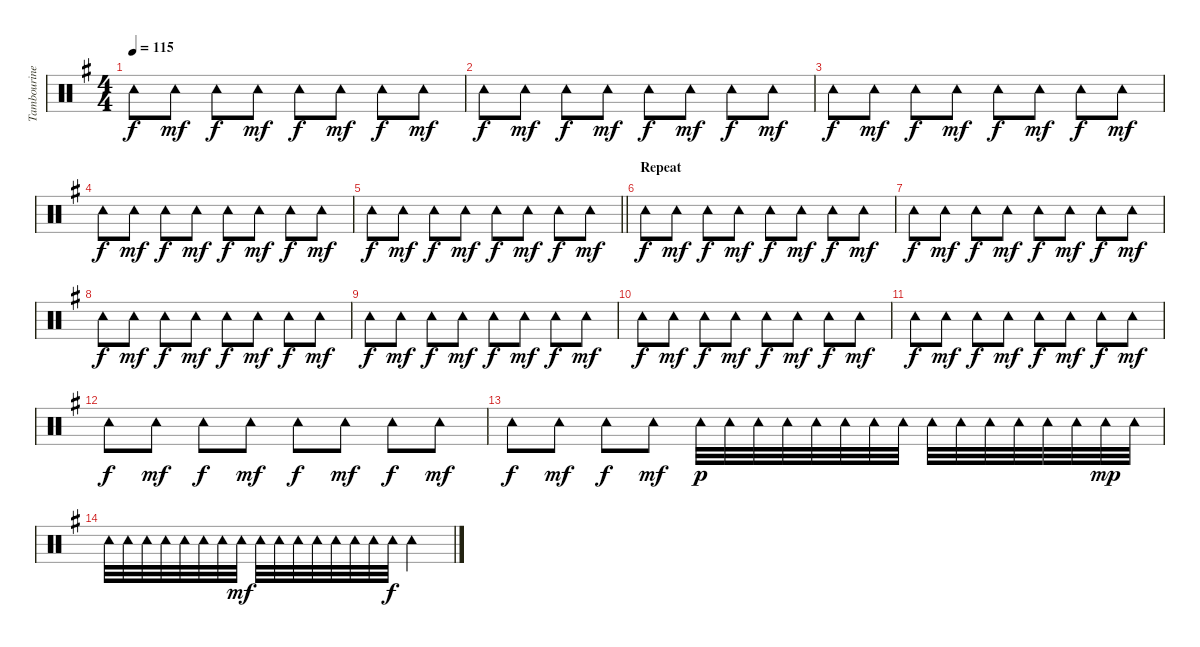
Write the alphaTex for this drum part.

\track ("Tambourine" "Tambourine") {instrument percussion}
\staff {score}
\articulation defaults
\ts (4 4)
\tempo 115
\clef neutral
\ks g "Tambourine (hit)".8{dy f} "Tambourine (hit)".8{dy mf} "Tambourine (hit)".8{dy f} "Tambourine (hit)".8{dy mf} "Tambourine (hit)".8{dy f} "Tambourine (hit)".8{dy mf} "Tambourine (hit)".8{dy f} "Tambourine (hit)".8{dy mf}
|
"Tambourine (hit)".8{dy f} "Tambourine (hit)".8{dy mf} "Tambourine (hit)".8{dy f} "Tambourine (hit)".8{dy mf} "Tambourine (hit)".8{dy f} "Tambourine (hit)".8{dy mf} "Tambourine (hit)".8{dy f} "Tambourine (hit)".8{dy mf} |
"Tambourine (hit)".8{dy f} "Tambourine (hit)".8{dy mf} "Tambourine (hit)".8{dy f} "Tambourine (hit)".8{dy mf} "Tambourine (hit)".8{dy f} "Tambourine (hit)".8{dy mf} "Tambourine (hit)".8{dy f} "Tambourine (hit)".8{dy mf} |
"Tambourine (hit)".8{dy f} "Tambourine (hit)".8{dy mf} "Tambourine (hit)".8{dy f} "Tambourine (hit)".8{dy mf} "Tambourine (hit)".8{dy f} "Tambourine (hit)".8{dy mf} "Tambourine (hit)".8{dy f} "Tambourine (hit)".8{dy mf} |
\barLineRight lightlight "Tambourine (hit)".8{dy f} "Tambourine (hit)".8{dy mf} "Tambourine (hit)".8{dy f} "Tambourine (hit)".8{dy mf} "Tambourine (hit)".8{dy f} "Tambourine (hit)".8{dy mf} "Tambourine (hit)".8{dy f} "Tambourine (hit)".8{dy mf}
|
\section ("" "Repeat")
"Tambourine (hit)".8{dy f} "Tambourine (hit)".8{dy mf} "Tambourine (hit)".8{dy f} "Tambourine (hit)".8{dy mf} "Tambourine (hit)".8{dy f} "Tambourine (hit)".8{dy mf} "Tambourine (hit)".8{dy f} "Tambourine (hit)".8{dy mf} |
"Tambourine (hit)".8{dy f} "Tambourine (hit)".8{dy mf} "Tambourine (hit)".8{dy f} "Tambourine (hit)".8{dy mf} "Tambourine (hit)".8{dy f} "Tambourine (hit)".8{dy mf} "Tambourine (hit)".8{dy f} "Tambourine (hit)".8{dy mf} |
"Tambourine (hit)".8{dy f} "Tambourine (hit)".8{dy mf} "Tambourine (hit)".8{dy f} "Tambourine (hit)".8{dy mf} "Tambourine (hit)".8{dy f} "Tambourine (hit)".8{dy mf} "Tambourine (hit)".8{dy f} "Tambourine (hit)".8{dy mf} |
"Tambourine (hit)".8{dy f} "Tambourine (hit)".8{dy mf} "Tambourine (hit)".8{dy f} "Tambourine (hit)".8{dy mf} "Tambourine (hit)".8{dy f} "Tambourine (hit)".8{dy mf} "Tambourine (hit)".8{dy f} "Tambourine (hit)".8{dy mf} |
"Tambourine (hit)".8{dy f} "Tambourine (hit)".8{dy mf} "Tambourine (hit)".8{dy f} "Tambourine (hit)".8{dy mf} "Tambourine (hit)".8{dy f} "Tambourine (hit)".8{dy mf} "Tambourine (hit)".8{dy f} "Tambourine (hit)".8{dy mf} |
"Tambourine (hit)".8{dy f} "Tambourine (hit)".8{dy mf} "Tambourine (hit)".8{dy f} "Tambourine (hit)".8{dy mf} "Tambourine (hit)".8{dy f} "Tambourine (hit)".8{dy mf} "Tambourine (hit)".8{dy f} "Tambourine (hit)".8{dy mf} |
"Tambourine (hit)".8{dy f} "Tambourine (hit)".8{dy mf} "Tambourine (hit)".8{dy f} "Tambourine (hit)".8{dy mf} "Tambourine (hit)".8{dy f} "Tambourine (hit)".8{dy mf} "Tambourine (hit)".8{dy f} "Tambourine (hit)".8{dy mf} |
"Tambourine (hit)".8{dy f} "Tambourine (hit)".8{dy mf} "Tambourine (hit)".8{dy f} "Tambourine (hit)".8{dy mf} "Tambourine (hit)".32{dy p} "Tambourine (hit)".32 "Tambourine (hit)".32 "Tambourine (hit)".32 "Tambourine (hit)".32 "Tambourine (hit)".32 "Tambourine (hit)".32 "Tambourine (hit)".32 "Tambourine (hit)".32 "Tambourine (hit)".32 "Tambourine (hit)".32 "Tambourine (hit)".32 "Tambourine (hit)".32 "Tambourine (hit)".32 "Tambourine (hit)".32{dy mp} "Tambourine (hit)".32 |
"Tambourine (hit)".32 "Tambourine (hit)".32 "Tambourine (hit)".32 "Tambourine (hit)".32 "Tambourine (hit)".32 "Tambourine (hit)".32 "Tambourine (hit)".32 "Tambourine (hit)".32{dy mf} "Tambourine (hit)".32 "Tambourine (hit)".32 "Tambourine (hit)".32 "Tambourine (hit)".32 "Tambourine (hit)".32 "Tambourine (hit)".32 "Tambourine (hit)".32 "Tambourine (hit)".32{dy f} "Tambourine (hit)".2
